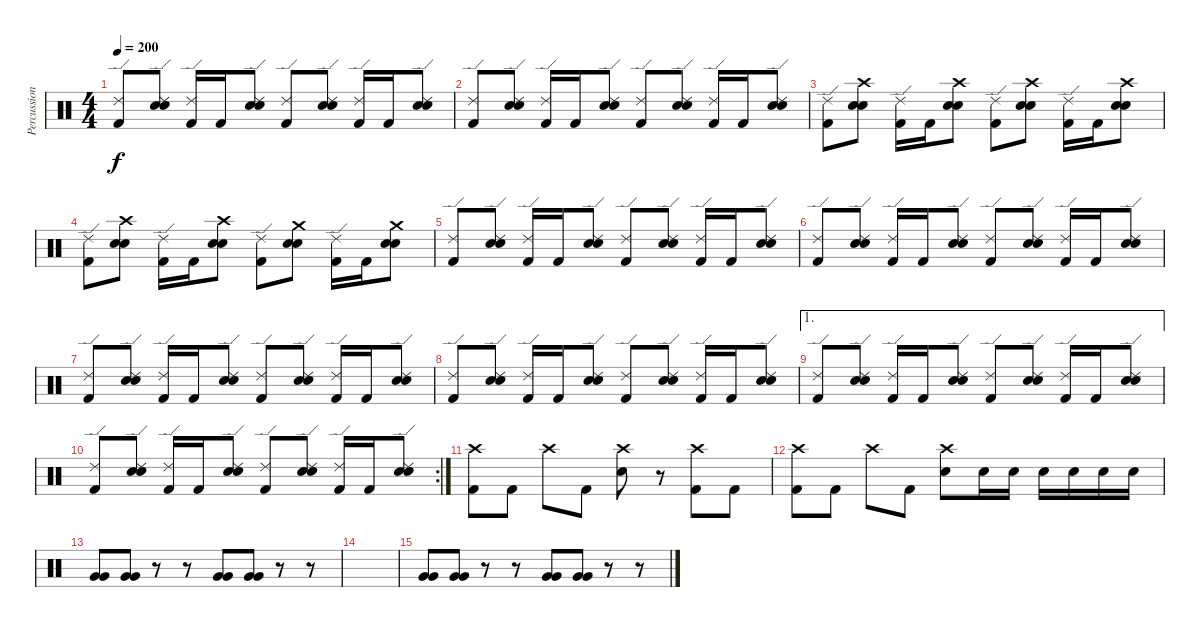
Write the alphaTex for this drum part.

\track ("Percussion" "Percussion") {instrument percussion}
\staff {score}
\articulation defaults
\ts (4 4)
\tempo 200
\clef neutral
\ks c
("Ride (edge) 2" "Kick (hit) 2").8{dy f} ("Ride (edge) 2" "Electric Snare (hit)" "Electric Snare (hit)").8 ("Ride (edge) 2" "Kick (hit) 2").16 "Kick (hit) 2".16 ("Ride (edge) 2" "Electric Snare (hit)" "Electric Snare (hit)").8 ("Ride (edge) 2" "Kick (hit) 2").8 ("Ride (edge) 2" "Electric Snare (hit)" "Electric Snare (hit)").8 ("Ride (edge) 2" "Kick (hit) 2").16 "Kick (hit) 2".16 ("Ride (edge) 2" "Electric Snare (hit)" "Electric Snare (hit)").8 |
("Ride (edge) 2" "Kick (hit) 2").8 ("Ride (edge) 2" "Electric Snare (hit)" "Electric Snare (hit)").8 ("Ride (edge) 2" "Kick (hit) 2").16 "Kick (hit) 2".16 ("Ride (edge) 2" "Electric Snare (hit)" "Electric Snare (hit)").8 ("Ride (edge) 2" "Kick (hit) 2").8 ("Ride (edge) 2" "Electric Snare (hit)" "Electric Snare (hit)").8 ("Ride (edge) 2" "Kick (hit) 2").16 "Kick (hit) 2".16 ("Ride (edge) 2" "Electric Snare (hit)" "Electric Snare (hit)").8 |
("Ride (edge) 2" "Kick (hit) 2").8 ("Crash high (hit)" "Electric Snare (hit)" "Electric Snare (hit)").8 ("Ride (edge) 2" "Kick (hit) 2").16 "Kick (hit) 2".16 ("Crash high (hit)" "Electric Snare (hit)" "Electric Snare (hit)").8 ("Ride (edge) 2" "Kick (hit) 2").8 ("Crash high (hit)" "Electric Snare (hit)" "Electric Snare (hit)").8 ("Ride (edge) 2" "Kick (hit) 2").16 "Kick (hit) 2".16 ("Crash high (hit)" "Electric Snare (hit)" "Electric Snare (hit)").8 |
("Ride (edge) 2" "Kick (hit) 2").8 ("Crash high (hit)" "Electric Snare (hit)" "Electric Snare (hit)").8 ("Ride (edge) 2" "Kick (hit) 2").16 "Kick (hit) 2".16 ("Crash high (hit)" "Electric Snare (hit)" "Electric Snare (hit)").8 ("Ride (edge) 2" "Kick (hit) 2").8 ("Crash medium (hit)" "Electric Snare (hit)" "Electric Snare (hit)").8 ("Ride (edge) 2" "Kick (hit) 2").16 "Kick (hit) 2".16 ("Crash medium (hit)" "Electric Snare (hit)" "Electric Snare (hit)").8 |
("Ride (edge) 2" "Kick (hit) 2").8 ("Ride (edge) 2" "Electric Snare (hit)" "Electric Snare (hit)").8 ("Ride (edge) 2" "Kick (hit) 2").16 "Kick (hit) 2".16 ("Ride (edge) 2" "Electric Snare (hit)" "Electric Snare (hit)").8 ("Ride (edge) 2" "Kick (hit) 2").8 ("Ride (edge) 2" "Electric Snare (hit)" "Electric Snare (hit)").8 ("Ride (edge) 2" "Kick (hit) 2").16 "Kick (hit) 2".16 ("Ride (edge) 2" "Electric Snare (hit)" "Electric Snare (hit)").8 |
("Ride (edge) 2" "Kick (hit) 2").8 ("Ride (edge) 2" "Electric Snare (hit)" "Electric Snare (hit)").8 ("Ride (edge) 2" "Kick (hit) 2").16 "Kick (hit) 2".16 ("Ride (edge) 2" "Electric Snare (hit)" "Electric Snare (hit)").8 ("Ride (edge) 2" "Kick (hit) 2").8 ("Ride (edge) 2" "Electric Snare (hit)" "Electric Snare (hit)").8 ("Ride (edge) 2" "Kick (hit) 2").16 "Kick (hit) 2".16 ("Ride (edge) 2" "Electric Snare (hit)" "Electric Snare (hit)").8 |
("Ride (edge) 2" "Kick (hit) 2").8 ("Ride (edge) 2" "Electric Snare (hit)" "Electric Snare (hit)").8 ("Ride (edge) 2" "Kick (hit) 2").16 "Kick (hit) 2".16 ("Ride (edge) 2" "Electric Snare (hit)" "Electric Snare (hit)").8 ("Ride (edge) 2" "Kick (hit) 2").8 ("Ride (edge) 2" "Electric Snare (hit)" "Electric Snare (hit)").8 ("Ride (edge) 2" "Kick (hit) 2").16 "Kick (hit) 2".16 ("Ride (edge) 2" "Electric Snare (hit)" "Electric Snare (hit)").8 |
("Ride (edge) 2" "Kick (hit) 2").8 ("Ride (edge) 2" "Electric Snare (hit)" "Electric Snare (hit)").8 ("Ride (edge) 2" "Kick (hit) 2").16 "Kick (hit) 2".16 ("Ride (edge) 2" "Electric Snare (hit)" "Electric Snare (hit)").8 ("Ride (edge) 2" "Kick (hit) 2").8 ("Ride (edge) 2" "Electric Snare (hit)" "Electric Snare (hit)").8 ("Ride (edge) 2" "Kick (hit) 2").16 "Kick (hit) 2".16 ("Ride (edge) 2" "Electric Snare (hit)" "Electric Snare (hit)").8 |
\ae 1
("Ride (edge) 2" "Kick (hit) 2").8 ("Ride (edge) 2" "Electric Snare (hit)" "Electric Snare (hit)").8 ("Ride (edge) 2" "Kick (hit) 2").16 "Kick (hit) 2".16 ("Ride (edge) 2" "Electric Snare (hit)" "Electric Snare (hit)").8 ("Ride (edge) 2" "Kick (hit) 2").8 ("Ride (edge) 2" "Electric Snare (hit)" "Electric Snare (hit)").8 ("Ride (edge) 2" "Kick (hit) 2").16 "Kick (hit) 2".16 ("Ride (edge) 2" "Electric Snare (hit)" "Electric Snare (hit)").8 |
\rc 2
("Ride (edge) 2" "Kick (hit) 2").8 ("Ride (edge) 2" "Electric Snare (hit)" "Electric Snare (hit)").8 ("Ride (edge) 2" "Kick (hit) 2").16 "Kick (hit) 2".16 ("Ride (edge) 2" "Electric Snare (hit)" "Electric Snare (hit)").8 ("Ride (edge) 2" "Kick (hit) 2").8 ("Ride (edge) 2" "Electric Snare (hit)" "Electric Snare (hit)").8 ("Ride (edge) 2" "Kick (hit) 2").16 "Kick (hit) 2".16 ("Ride (edge) 2" "Electric Snare (hit)" "Electric Snare (hit)").8 |
("Crash high (hit)" "Kick (hit) 2").8 "Kick (hit) 2".8 "Crash high (hit)".8 "Kick (hit) 2".8 ("Crash high (hit)" "Electric Snare (hit)").8 r.8 ("Crash high (hit)" "Kick (hit) 2").8 "Kick (hit) 2".8 |
("Crash high (hit)" "Kick (hit) 2").8 "Kick (hit) 2".8 "Crash high (hit)".8 "Kick (hit) 2".8 ("Crash high (hit)" "Electric Snare (hit)").8 "Electric Snare (hit)".16 "Electric Snare (hit)".16 "Electric Snare (hit)".16 "Electric Snare (hit)".16 "Electric Snare (hit)".16 "Electric Snare (hit)".16 |
("Very Low Tom (hit)" "Very Low Tom (hit)").8 ("Very Low Tom (hit)" "Very Low Tom (hit)").8 r.8 r.8 ("Very Low Tom (hit)" "Very Low Tom (hit)").8 ("Very Low Tom (hit)" "Very Low Tom (hit)").8 r.8 r.8 |
|
("Very Low Tom (hit)" "Very Low Tom (hit)").8 ("Very Low Tom (hit)" "Very Low Tom (hit)").8 r.8 r.8 ("Very Low Tom (hit)" "Very Low Tom (hit)").8 ("Very Low Tom (hit)" "Very Low Tom (hit)").8 r.8 r.8
